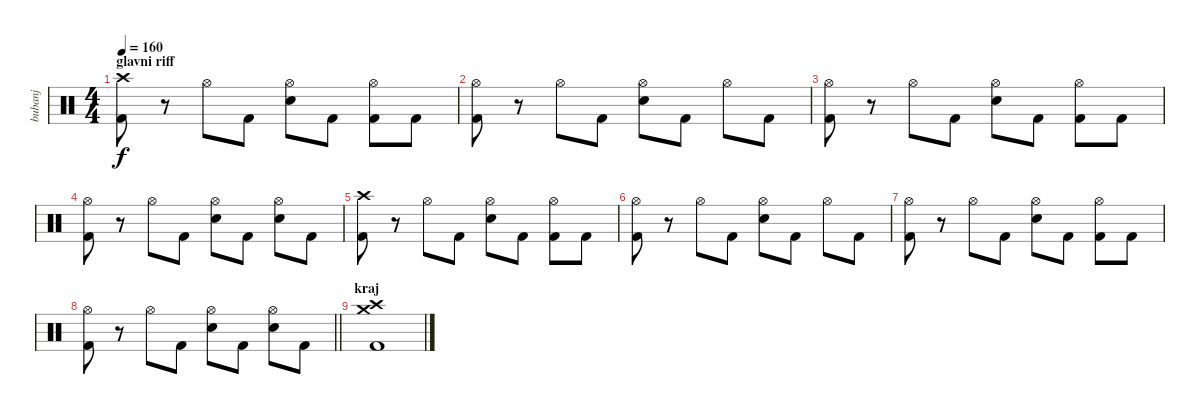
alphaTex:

\track ("bubanj" "bubanj") {instrument percussion}
\staff {score}
\articulation defaults
\ts (4 4)
\section ("" "glavni riff")
\tempo 160
\clef neutral
\ks c
("Crash high (hit)" "Kick (hit) 2").8{dy f} r.8 "Hi-Hat (open)".8 "Kick (hit) 2".8 ("Hi-Hat (open)" "Electric Snare (hit)").8 "Kick (hit) 2".8 ("Hi-Hat (open)" "Kick (hit) 2").8 "Kick (hit) 2".8 |
("Hi-Hat (open)" "Kick (hit) 2").8 r.8 "Hi-Hat (open)".8 "Kick (hit) 2".8 ("Hi-Hat (open)" "Electric Snare (hit)").8 "Kick (hit) 2".8 "Hi-Hat (open)".8 "Kick (hit) 2".8 |
("Hi-Hat (open)" "Kick (hit) 2").8 r.8 "Hi-Hat (open)".8 "Kick (hit) 2".8 ("Hi-Hat (open)" "Electric Snare (hit)").8 "Kick (hit) 2".8 ("Hi-Hat (open)" "Kick (hit) 2").8 "Kick (hit) 2".8 |
("Hi-Hat (open)" "Kick (hit) 2").8 r.8 "Hi-Hat (open)".8 "Kick (hit) 2".8 ("Hi-Hat (open)" "Electric Snare (hit)").8 "Kick (hit) 2".8 ("Hi-Hat (open)" "Electric Snare (hit)").8 "Kick (hit) 2".8 |
("Crash high (hit)" "Kick (hit) 2").8 r.8 "Hi-Hat (open)".8 "Kick (hit) 2".8 ("Hi-Hat (open)" "Electric Snare (hit)").8 "Kick (hit) 2".8 ("Hi-Hat (open)" "Kick (hit) 2").8 "Kick (hit) 2".8 |
("Hi-Hat (open)" "Kick (hit) 2").8 r.8 "Hi-Hat (open)".8 "Kick (hit) 2".8 ("Hi-Hat (open)" "Electric Snare (hit)").8 "Kick (hit) 2".8 "Hi-Hat (open)".8 "Kick (hit) 2".8 |
("Hi-Hat (open)" "Kick (hit) 2").8 r.8 "Hi-Hat (open)".8 "Kick (hit) 2".8 ("Hi-Hat (open)" "Electric Snare (hit)").8 "Kick (hit) 2".8 ("Hi-Hat (open)" "Kick (hit) 2").8 "Kick (hit) 2".8 |
\barLineRight lightlight
("Hi-Hat (open)" "Kick (hit) 2").8 r.8 "Hi-Hat (open)".8 "Kick (hit) 2".8 ("Hi-Hat (open)" "Electric Snare (hit)").8 "Kick (hit) 2".8 ("Hi-Hat (open)" "Electric Snare (hit)").8 "Kick (hit) 2".8 |
\section ("" "kraj")
("Crash medium (hit)" "Crash high (hit)" "Kick (hit) 2").1
